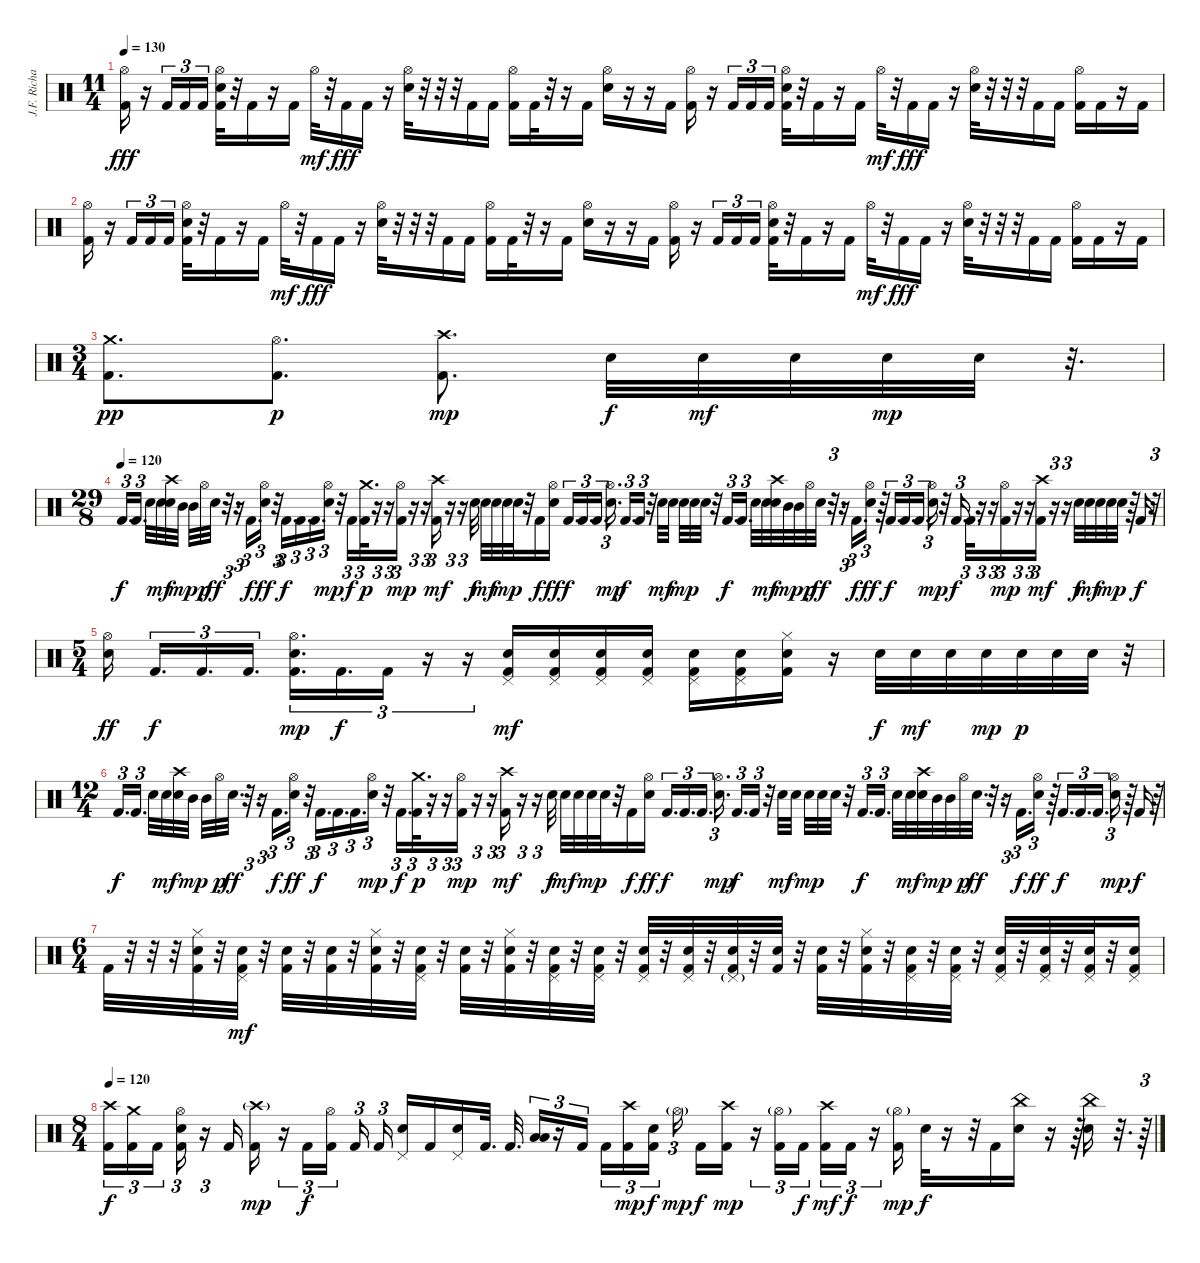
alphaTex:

\track ("J.F. Richards" "J.F. Richa") {instrument percussion}
\staff {score}
\articulation defaults
\ts (11 4)
\tempo 130
\clef neutral
\ks c
("Hi-Hat (open)" "Kick (hit) 2").16{dy fff} r.16 "Kick (hit) 2".16{tu (3 2)} "Kick (hit) 2".16{tu (3 2)} "Kick (hit) 2".16{tu (3 2)} ("Hi-Hat (open)" "Electric Snare (hit)" "Kick (hit) 2").32 r.32 "Kick (hit) 2".16 r.16 "Kick (hit) 2".16 "Hi-Hat (open)".32{dy mf} r.32 "Kick (hit) 2".16{dy fff} "Kick (hit) 2".16 r.16 ("Hi-Hat (open)" "Electric Snare (hit)").32 r.32 r.32 r.32 "Kick (hit) 2".16 "Kick (hit) 2".16 ("Hi-Hat (open)" "Kick (hit) 2").16 "Kick (hit) 2".32 r.32 r.16 "Kick (hit) 2".16 ("Hi-Hat (open)" "Electric Snare (hit)").16 r.16 r.16 "Kick (hit) 2".16 ("Hi-Hat (open)" "Kick (hit) 2").16 r.16 "Kick (hit) 2".16{tu (3 2)} "Kick (hit) 2".16{tu (3 2)} "Kick (hit) 2".16{tu (3 2)} ("Hi-Hat (open)" "Electric Snare (hit)" "Kick (hit) 2").32 r.32 "Kick (hit) 2".16 r.16 "Kick (hit) 2".16 "Hi-Hat (open)".32{dy mf} r.32 "Kick (hit) 2".16{dy fff} "Kick (hit) 2".16 r.16 ("Hi-Hat (open)" "Electric Snare (hit)").32 r.32 r.32 r.32 "Kick (hit) 2".16 "Kick (hit) 2".16 ("Hi-Hat (open)" "Kick (hit) 2").16 "Kick (hit) 2".16 r.16 "Kick (hit) 2".16 |
("Hi-Hat (open)" "Kick (hit) 2").16 r.16 "Kick (hit) 2".16{tu (3 2)} "Kick (hit) 2".16{tu (3 2)} "Kick (hit) 2".16{tu (3 2)} ("Hi-Hat (open)" "Electric Snare (hit)" "Kick (hit) 2").32 r.32 "Kick (hit) 2".16 r.16 "Kick (hit) 2".16 "Hi-Hat (open)".32{dy mf} r.32 "Kick (hit) 2".16{dy fff} "Kick (hit) 2".16 r.16 ("Hi-Hat (open)" "Electric Snare (hit)").32 r.32 r.32 r.32 "Kick (hit) 2".16 "Kick (hit) 2".16 ("Hi-Hat (open)" "Kick (hit) 2").16 "Kick (hit) 2".32 r.32 r.16 "Kick (hit) 2".16 ("Hi-Hat (open)" "Electric Snare (hit)").16 r.16 r.16 "Kick (hit) 2".16 ("Hi-Hat (open)" "Kick (hit) 2").16 r.16 "Kick (hit) 2".16{tu (3 2)} "Kick (hit) 2".16{tu (3 2)} "Kick (hit) 2".16{tu (3 2)} ("Hi-Hat (open)" "Electric Snare (hit)" "Kick (hit) 2").32 r.32 "Kick (hit) 2".16 r.16 "Kick (hit) 2".16 "Hi-Hat (open)".32{dy mf} r.32 "Kick (hit) 2".16{dy fff} "Kick (hit) 2".16 r.16 ("Hi-Hat (open)" "Electric Snare (hit)").32 r.32 r.32 r.32 "Kick (hit) 2".16 "Kick (hit) 2".16 ("Hi-Hat (open)" "Kick (hit) 2").16 "Kick (hit) 2".16 r.16 "Kick (hit) 2".16 |
\ts (3 4)
("Crash medium (hit)" "Kick (hit) 2").8{d dy pp} ("Hi-Hat (open)" "Kick (hit) 2").8{d dy p} ("Crash high (hit)" "Kick (hit) 2").8{d dy mp} "Electric Snare (hit)".32{dy f} "Electric Snare (hit)".32{dy mf} "Electric Snare (hit)".32 "Electric Snare (hit)".32{dy mp} "Electric Snare (hit)".32 r.32{d tu (3 2)} |
\ts (29 8)
\tempo (120)
"Kick (hit) 2".16{d tu (3 2) dy f} "Kick (hit) 2".16{d tu (3 2)} "Electric Snare (hit)".32 "Electric Snare (hit)".32{dy mf} ("Crash high (hit)" "Electric Snare (hit)").32 "Mid Tom (hit)".32{dy mp} "Mid Tom (hit)".32 "Hi-Hat (open)".32{dy p} "Electric Snare (hit)".32{d dy ff} r.32{d tu (3 2)} r.16{tu (3 2)} "Kick (hit) 2".16{d tu (3 2) dy f} ("Hi-Hat (open)" "Electric Snare (hit)").16{tu (3 2) dy ff} r.32{tu (3 2)} "Kick (hit) 2".16{d tu (3 2) dy f} "Kick (hit) 2".16{d tu (3 2)} "Kick (hit) 2".16{d tu (3 2)} ("Hi-Hat (open)" "Electric Snare (hit)").16{tu (3 2) dy mp} r.32 "Kick (hit) 2".16{d tu (3 2) dy f} ("Crash medium (hit)" "Kick (hit) 2").32{d tu (3 2) dy p} r.16{tu (3 2)} r.16{tu (3 2)} ("Hi-Hat (open)" "Kick (hit) 2").16{tu (3 2) dy mp} r.16{tu (3 2)} r.16{tu (3 2)} ("Crash high (hit)" "Kick (hit) 2").16{tu (3 2) dy mf} r.16{tu (3 2)} r.16{tu (3 2)} "Electric Snare (hit)".32{dy f} "Electric Snare (hit)".32{dy mf} "Electric Snare (hit)".32 "Electric Snare (hit)".32{dy mp} "Electric Snare (hit)".32 r.32 "Kick (hit) 2".16{dy f} ("Hi-Hat (open)" "Electric Snare (hit)").16{dy ff} "Kick (hit) 2".16{d tu (3 2) dy f} "Kick (hit) 2".16{d tu (3 2)} "Kick (hit) 2".16{d tu (3 2)} ("Hi-Hat (open)" "Electric Snare (hit)").16{d tu (3 2) dy mp} "Kick (hit) 2".16{d tu (3 2) dy f} "Kick (hit) 2".16{tu (3 2)} r.32 "Electric Snare (hit)".32{dy mf} "Electric Snare (hit)".32 "Electric Snare (hit)".32{dy mp} "Electric Snare (hit)".32 "Electric Snare (hit)".32 r.32 "Kick (hit) 2".16{d tu (3 2) dy f} "Kick (hit) 2".16{d tu (3 2)} "Electric Snare (hit)".32 "Electric Snare (hit)".32{dy mf} ("Crash high (hit)" "Electric Snare (hit)").32 "Mid Tom (hit)".32{dy mp} "Mid Tom (hit)".32 "Hi-Hat (open)".32{dy p} "Electric Snare (hit)".32{d dy ff} r.32{d tu (3 2)} r.16{tu (3 2)} "Kick (hit) 2".16{d tu (3 2) dy f} ("Hi-Hat (open)" "Electric Snare (hit)").16{tu (3 2) dy ff} r.64 "Kick (hit) 2".16{d tu (3 2) dy f} "Kick (hit) 2".16{d tu (3 2)} "Kick (hit) 2".16{d tu (3 2)} ("Hi-Hat (open)" "Electric Snare (hit)").16{tu (3 2) dy mp} r.32 "Kick (hit) 2".16{d tu (3 2) dy f} "Kick (hit) 2".32{d tu (3 2)} r.16{tu (3 2)} r.16{tu (3 2)} ("Hi-Hat (open)" "Kick (hit) 2").16{tu (3 2) dy mp} r.16{tu (3 2)} r.16{tu (3 2)} ("Crash high (hit)" "Kick (hit) 2").16{tu (3 2) dy mf} r.16{tu (3 2)} r.16{tu (3 2)} "Electric Snare (hit)".32{dy f} "Electric Snare (hit)".32{dy mf} "Electric Snare (hit)".32 "Electric Snare (hit)".32{dy mp} "Electric Snare (hit)".32 r.64 "Kick (hit) 2".16{dy f} r.32{tu (3 2)} |
\ts (5 4)
("Hi-Hat (open)" "Electric Snare (hit)").16{dy ff beam splitsecondary} "Kick (hit) 2".16{d tu (3 2) dy f} "Kick (hit) 2".16{d tu (3 2)} "Kick (hit) 2".16{d tu (3 2)} ("Hi-Hat (open)" "Electric Snare (hit)" "Kick (hit) 2").16{d tu (3 2) dy mp} "Kick (hit) 2".16{d tu (3 2) dy f} "Kick (hit) 2".16{tu (3 2)} r.16{tu (3 2)} r.16{tu (3 2)} ("Pedal Hi-Hat (hit)" "Electric Snare (hit)" "Kick (hit) 2").16{dy mf} ("Pedal Hi-Hat (hit)" "Electric Snare (hit)" "Kick (hit) 2").16 ("Pedal Hi-Hat (hit)" "Electric Snare (hit)" "Kick (hit) 2").16 ("Pedal Hi-Hat (hit)" "Electric Snare (hit)" "Kick (hit) 2").16 ("Pedal Hi-Hat (hit)" "Electric Snare (hit)" "Kick (hit) 2").16 ("Pedal Hi-Hat (hit)" "Electric Snare (hit)" "Kick (hit) 2").16 ("Hi-Hat (closed)" "Electric Snare (hit)" "Kick (hit) 2").16 r.16 "Electric Snare (hit)".32{dy f} "Electric Snare (hit)".32{dy mf} "Electric Snare (hit)".32 "Electric Snare (hit)".32{dy mp} "Electric Snare (hit)".32{dy p} "Electric Snare (hit)".32 "Electric Snare (hit)".32 r.32 |
\ts (12 4)
"Kick (hit) 2".16{d tu (3 2) dy f} "Kick (hit) 2".16{d tu (3 2) beam splitsecondary} "Electric Snare (hit)".32 "Electric Snare (hit)".32{dy mf} ("Crash high (hit)" "Electric Snare (hit)").32 "Mid Tom (hit)".32{dy mp} "Mid Tom (hit)".32 "Hi-Hat (open)".32{dy p} "Electric Snare (hit)".32{d dy ff} r.32{d tu (3 2)} r.16{tu (3 2)} "Kick (hit) 2".16{d tu (3 2) dy f} ("Hi-Hat (open)" "Electric Snare (hit)").16{tu (3 2) dy ff} r.32{tu (3 2)} "Kick (hit) 2".16{d tu (3 2) dy f} "Kick (hit) 2".16{d tu (3 2)} "Kick (hit) 2".16{d tu (3 2)} ("Hi-Hat (open)" "Electric Snare (hit)").16{tu (3 2) dy mp} r.32 "Kick (hit) 2".16{d tu (3 2) dy f} ("Crash medium (hit)" "Kick (hit) 2").32{d tu (3 2) dy p} r.16{tu (3 2)} r.16{tu (3 2)} ("Hi-Hat (open)" "Kick (hit) 2").16{tu (3 2) dy mp} r.16{tu (3 2)} r.16{tu (3 2)} ("Crash high (hit)" "Kick (hit) 2").16{tu (3 2) dy mf} r.16{tu (3 2)} r.16{tu (3 2)} "Electric Snare (hit)".32{dy f} "Electric Snare (hit)".32{dy mf} "Electric Snare (hit)".32 "Electric Snare (hit)".32{dy mp} "Electric Snare (hit)".32 r.32 "Kick (hit) 2".16{dy f} ("Hi-Hat (open)" "Electric Snare (hit)").16{dy ff} "Kick (hit) 2".16{d tu (3 2) dy f} "Kick (hit) 2".16{d tu (3 2)} "Kick (hit) 2".16{d tu (3 2)} ("Hi-Hat (open)" "Electric Snare (hit)").16{d tu (3 2) dy mp} "Kick (hit) 2".16{d tu (3 2) dy f} "Kick (hit) 2".16{tu (3 2)} r.32 "Electric Snare (hit)".32{dy mf} "Electric Snare (hit)".32 "Electric Snare (hit)".32{dy mp} "Electric Snare (hit)".32 "Electric Snare (hit)".32 r.32 "Kick (hit) 2".16{d tu (3 2) dy f} "Kick (hit) 2".16{d tu (3 2)} "Electric Snare (hit)".32 "Electric Snare (hit)".32{dy mf} ("Crash high (hit)" "Electric Snare (hit)").32 "Mid Tom (hit)".32{dy mp} "Mid Tom (hit)".32 "Hi-Hat (open)".32{dy p} "Electric Snare (hit)".32{d dy ff} r.32{d tu (3 2)} r.16{tu (3 2)} "Kick (hit) 2".16{d tu (3 2) dy f} ("Hi-Hat (open)" "Electric Snare (hit)").16{tu (3 2) dy ff} r.64 "Kick (hit) 2".16{d tu (3 2) dy f} "Kick (hit) 2".16{d tu (3 2)} "Kick (hit) 2".16{d tu (3 2)} ("Hi-Hat (open)" "Electric Snare (hit)").16{tu (3 2) dy mp} r.64 "Kick (hit) 2".16{dy f} r.64{tu (3 2)} |
\ts (6 4)
"Kick (hit) 2".32 r.32 r.32 r.32 ("Hi-Hat (closed)" "Electric Snare (hit)" "Kick (hit) 2").32 r.32 ("Pedal Hi-Hat (hit)" "Electric Snare (hit)" "Kick (hit) 2").32{dy mf} r.32 ("Electric Snare (hit)" "Kick (hit) 2").32 r.32 ("Electric Snare (hit)" "Kick (hit) 2").32 r.32 ("Hi-Hat (closed)" "Electric Snare (hit)" "Kick (hit) 2").32 r.32 ("Pedal Hi-Hat (hit)" "Electric Snare (hit)" "Kick (hit) 2").32 r.32 ("Electric Snare (hit)" "Kick (hit) 2").32 r.32 ("Hi-Hat (closed)" "Electric Snare (hit)" "Kick (hit) 2").32 r.32 ("Pedal Hi-Hat (hit)" "Electric Snare (hit)" "Kick (hit) 2").32 r.32 ("Pedal Hi-Hat (hit)" "Electric Snare (hit)" "Kick (hit) 2").32 r.32 ("Pedal Hi-Hat (hit)" "Electric Snare (hit)" "Kick (hit) 2").32 r.32 ("Pedal Hi-Hat (hit)" "Electric Snare (hit)" "Kick (hit) 2").32 r.32 ("Pedal Hi-Hat (hit)"{g} "Electric Snare (hit)" "Kick (hit) 2").32 r.32 ("Electric Snare (hit)" "Kick (hit) 2").32 r.32 ("Electric Snare (hit)" "Kick (hit) 2").32 r.32 ("Hi-Hat (closed)" "Electric Snare (hit)" "Kick (hit) 2").32 r.32 ("Pedal Hi-Hat (hit)" "Electric Snare (hit)" "Kick (hit) 2").32 r.32 ("Pedal Hi-Hat (hit)" "Electric Snare (hit)" "Kick (hit) 2").32 r.32 ("Pedal Hi-Hat (hit)" "Electric Snare (hit)" "Kick (hit) 2").32 r.32 ("Pedal Hi-Hat (hit)" "Electric Snare (hit)" "Kick (hit) 2").32 r.32 ("Pedal Hi-Hat (hit)" "Electric Snare (hit)" "Kick (hit) 2").32 r.32 ("Pedal Hi-Hat (hit)" "Electric Snare (hit)" "Kick (hit) 2").16 |
\ts (8 4)
\tempo 120
("Crash high (hit)" "Kick (hit) 2").16{tu (3 2) dy f} ("Crash medium (hit)" "Kick (hit) 2").16{tu (3 2)} "Kick (hit) 2".16{tu (3 2) beam splitsecondary} ("Hi-Hat (open)" "Electric Snare (hit)" "Kick (hit) 2").16{tu (3 2)} r.16{tu (3 2)} "Kick (hit) 2".16 ("Crash high (hit)"{g} "Kick (hit) 2").16{dy mp} r.16{tu (3 2)} "Kick (hit) 2".16{tu (3 2) dy f} ("Hi-Hat (open)" "Kick (hit) 2").16{tu (3 2) beam splitsecondary} "Kick (hit) 2".16{tu (3 2)} "Kick (hit) 2".16{tu (3 2) beam splitsecondary} ("Pedal Hi-Hat (hit)" "Electric Snare (hit)").16 "Kick (hit) 2".16 ("Pedal Hi-Hat (hit)" "Electric Snare (hit)").16 "Kick (hit) 2".32{d} "Kick (hit) 2".32{d} ("Low Floor Tom (hit)" "Low Floor Tom (hit)").16{tu (3 2)} r.16{tu (3 2)} "Kick (hit) 2".16{tu (3 2) beam splitsecondary} "Kick (hit) 2".16{tu (3 2)} ("Crash high (hit)" "Kick (hit) 2").16{tu (3 2) dy mp} ("Electric Snare (hit)" "Kick (hit) 2").16{tu (3 2) dy f beam splitsecondary} "Hi-Hat (open)"{g}.16{tu (3 2) dy mp beam splitsecondary} "Kick (hit) 2".16{dy f} ("Crash high (hit)" "Kick (hit) 2").16{dy mp} r.16{tu (3 2)} ("Hi-Hat (open)"{g} "Kick (hit) 2").16{tu (3 2)} "Kick (hit) 2".16{tu (3 2) dy f beam splitsecondary} ("Crash high (hit)" "Kick (hit) 2").16{tu (3 2) dy mf} "Kick (hit) 2".16{tu (3 2) dy f} r.16{tu (3 2)} ("Hi-Hat (open)"{g} "Kick (hit) 2").16{dy mp} "Electric Snare (hit)".32{dy f} r.16 r.32 "Kick (hit) 2".16 ("China (hit)" "Electric Snare (hit)").16 r.16 r.64 ("China (hit)" "Electric Snare (hit)").16 r.32{d} r.64{tu (3 2)}
